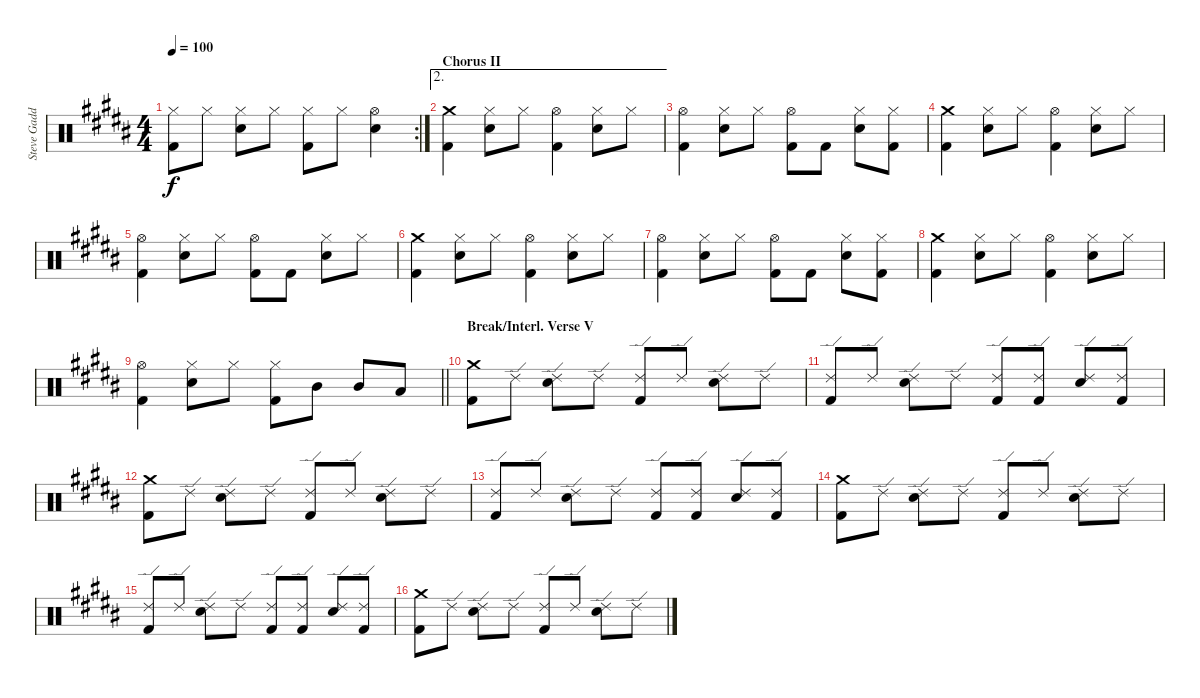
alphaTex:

\track ("Steve Gadd Drums" "Steve Gadd") {instrument percussion}
\staff {score}
\articulation defaults
\rc 2
\ts (4 4)
\tempo 100
\clef neutral
\ks b
("Hi-Hat (closed)" "Kick (hit) 2").8{dy f} "Hi-Hat (closed)".8 ("Hi-Hat (closed)" "Snare (hit) 2").8 "Hi-Hat (closed)".8 ("Hi-Hat (closed)" "Kick (hit) 2").8 "Hi-Hat (closed)".8 ("Hi-Hat (open)" "Snare (hit) 2").4 |
\ae 2
\section ("" "Chorus II")
("Crash medium (hit)" "Kick (hit) 2").4 ("Hi-Hat (closed)" "Snare (hit) 2").8 "Hi-Hat (closed)".8 ("Hi-Hat (open)" "Kick (hit) 2").4 ("Hi-Hat (closed)" "Snare (hit) 2").8 "Hi-Hat (closed)".8 |
("Hi-Hat (open)" "Kick (hit) 2").4 ("Hi-Hat (closed)" "Snare (hit) 2").8 "Hi-Hat (closed)".8 ("Hi-Hat (open)" "Kick (hit) 2").8 "Kick (hit) 2".8 ("Hi-Hat (closed)" "Snare (hit) 2").8 ("Hi-Hat (closed)" "Kick (hit) 2").8 |
("Crash medium (hit)" "Kick (hit) 2").4 ("Hi-Hat (closed)" "Snare (hit) 2").8 "Hi-Hat (closed)".8 ("Hi-Hat (open)" "Kick (hit) 2").4 ("Hi-Hat (closed)" "Snare (hit) 2").8 "Hi-Hat (closed)".8 |
("Hi-Hat (open)" "Kick (hit) 2").4 ("Hi-Hat (closed)" "Snare (hit) 2").8 "Hi-Hat (closed)".8 ("Hi-Hat (open)" "Kick (hit) 2").8 "Kick (hit) 2".8 ("Hi-Hat (closed)" "Snare (hit) 2").8 "Hi-Hat (closed)".8 |
("Crash medium (hit)" "Kick (hit) 2").4 ("Hi-Hat (closed)" "Snare (hit) 2").8 "Hi-Hat (closed)".8 ("Hi-Hat (open)" "Kick (hit) 2").4 ("Hi-Hat (closed)" "Snare (hit) 2").8 "Hi-Hat (closed)".8 |
("Hi-Hat (open)" "Kick (hit) 2").4 ("Hi-Hat (closed)" "Snare (hit) 2").8 "Hi-Hat (closed)".8 ("Hi-Hat (open)" "Kick (hit) 2").8 "Kick (hit) 2".8 ("Hi-Hat (closed)" "Snare (hit) 2").8 ("Hi-Hat (closed)" "Kick (hit) 2").8 |
("Crash medium (hit)" "Kick (hit) 2").4 ("Hi-Hat (closed)" "Snare (hit) 2").8 "Hi-Hat (closed)".8 ("Hi-Hat (open)" "Kick (hit) 2").4 ("Hi-Hat (closed)" "Snare (hit) 2").8 "Hi-Hat (closed)".8 |
\barLineRight lightlight
("Hi-Hat (open)" "Kick (hit) 2").4 ("Hi-Hat (closed)" "Snare (hit) 2").8 "Hi-Hat (closed)".8 ("Hi-Hat (closed)" "Kick (hit) 2").8 "Mid Tom (hit)".8 "Mid Tom (hit)".8 "Low Tom (hit)".8 |
\section ("" "Break/Interl. Verse V")
("Crash medium (hit)" "Kick (hit) 2").8 "Ride (edge) 2".8 ("Ride (edge) 2" "Snare (hit) 2").8 "Ride (edge) 2".8 ("Ride (edge) 2" "Kick (hit) 2").8 "Ride (edge) 2".8 ("Ride (edge) 2" "Snare (hit) 2").8 "Ride (edge) 2".8 |
("Ride (edge) 2" "Kick (hit) 2").8 "Ride (edge) 2".8 ("Ride (edge) 2" "Snare (hit) 2").8 "Ride (edge) 2".8 ("Ride (edge) 2" "Kick (hit) 2").8 ("Ride (edge) 2" "Kick (hit) 2").8 ("Ride (edge) 2" "Snare (hit) 2").8 ("Ride (edge) 2" "Kick (hit) 2").8 |
("Crash medium (hit)" "Kick (hit) 2").8 "Ride (edge) 2".8 ("Ride (edge) 2" "Snare (hit) 2").8 "Ride (edge) 2".8 ("Ride (edge) 2" "Kick (hit) 2").8 "Ride (edge) 2".8 ("Ride (edge) 2" "Snare (hit) 2").8 "Ride (edge) 2".8 |
("Ride (edge) 2" "Kick (hit) 2").8 "Ride (edge) 2".8 ("Ride (edge) 2" "Snare (hit) 2").8 "Ride (edge) 2".8 ("Ride (edge) 2" "Kick (hit) 2").8 ("Ride (edge) 2" "Kick (hit) 2").8 ("Ride (edge) 2" "Snare (hit) 2").8 ("Ride (edge) 2" "Kick (hit) 2").8 |
("Crash medium (hit)" "Kick (hit) 2").8 "Ride (edge) 2".8 ("Ride (edge) 2" "Snare (hit) 2").8 "Ride (edge) 2".8 ("Ride (edge) 2" "Kick (hit) 2").8 "Ride (edge) 2".8 ("Ride (edge) 2" "Snare (hit) 2").8 "Ride (edge) 2".8 |
("Ride (edge) 2" "Kick (hit) 2").8 "Ride (edge) 2".8 ("Ride (edge) 2" "Snare (hit) 2").8 "Ride (edge) 2".8 ("Ride (edge) 2" "Kick (hit) 2").8 ("Ride (edge) 2" "Kick (hit) 2").8 ("Ride (edge) 2" "Snare (hit) 2").8 ("Ride (edge) 2" "Kick (hit) 2").8 |
("Crash medium (hit)" "Kick (hit) 2").8 "Ride (edge) 2".8 ("Ride (edge) 2" "Snare (hit) 2").8 "Ride (edge) 2".8 ("Ride (edge) 2" "Kick (hit) 2").8 "Ride (edge) 2".8 ("Ride (edge) 2" "Snare (hit) 2").8 "Ride (edge) 2".8
